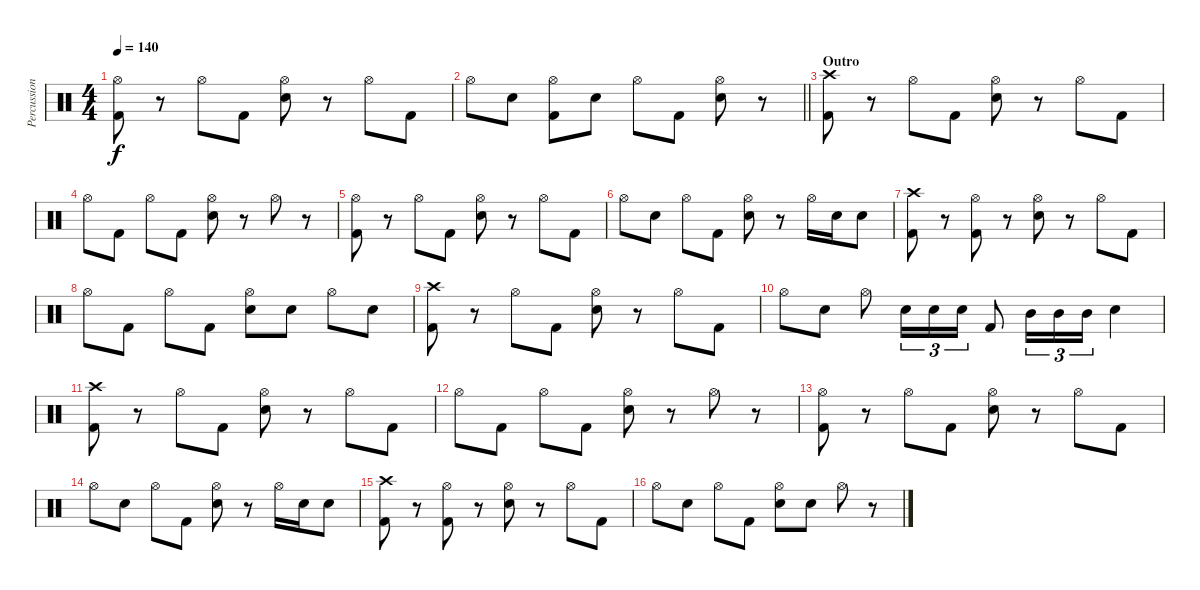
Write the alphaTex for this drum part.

\track ("Percussion" "Percussion") {instrument percussion}
\staff {score}
\articulation defaults
\ts (4 4)
\tempo 140
\clef neutral
\ks c
("Hi-Hat (open)" "Kick (hit) 2").8{dy f} r.8 "Hi-Hat (open)".8 "Kick (hit) 2".8 ("Hi-Hat (open)" "Snare (hit) 2").8 r.8 "Hi-Hat (open)".8 "Kick (hit) 2".8 |
\barLineRight lightlight "Hi-Hat (open)".8 "Snare (hit) 2".8
("Hi-Hat (open)" "Kick (hit) 2").8 "Snare (hit) 2".8 "Hi-Hat (open)".8 "Kick (hit) 2".8 ("Hi-Hat (open)" "Snare (hit) 2").8 r.8 |
\section ("" "Outro")
("Crash high (hit)" "Kick (hit) 2").8 r.8 "Hi-Hat (open)".8 "Kick (hit) 2".8 ("Hi-Hat (open)" "Snare (hit) 2").8 r.8 "Hi-Hat (open)".8 "Kick (hit) 2".8 |
"Hi-Hat (open)".8 "Kick (hit) 2".8 "Hi-Hat (open)".8 "Kick (hit) 2".8 ("Hi-Hat (open)" "Snare (hit) 2").8 r.8 "Hi-Hat (open)".8 r.8 |
("Hi-Hat (open)" "Kick (hit) 2").8 r.8 "Hi-Hat (open)".8 "Kick (hit) 2".8 ("Hi-Hat (open)" "Snare (hit) 2").8 r.8 "Hi-Hat (open)".8 "Kick (hit) 2".8 |
"Hi-Hat (open)".8 "Snare (hit) 2".8 "Hi-Hat (open)".8 "Kick (hit) 2".8 ("Hi-Hat (open)" "Snare (hit) 2").8 r.8 "Hi-Hat (open)".16 "Snare (hit) 2".16 "Snare (hit) 2".8 |
("Crash high (hit)" "Kick (hit) 2").8 r.8 ("Hi-Hat (open)" "Kick (hit) 2").8 r.8 ("Hi-Hat (open)" "Snare (hit) 2").8 r.8 "Hi-Hat (open)".8 "Kick (hit) 2".8 |
"Hi-Hat (open)".8 "Kick (hit) 2".8 "Hi-Hat (open)".8 "Kick (hit) 2".8 ("Hi-Hat (open)" "Snare (hit) 2").8 "Snare (hit) 2".8 "Hi-Hat (open)".8 "Snare (hit) 2".8 |
("Crash high (hit)" "Kick (hit) 2").8 r.8 "Hi-Hat (open)".8 "Kick (hit) 2".8 ("Hi-Hat (open)" "Snare (hit) 2").8 r.8 "Hi-Hat (open)".8 "Kick (hit) 2".8 |
"Hi-Hat (open)".8 "Snare (hit) 2".8 "Hi-Hat (open)".8 "Snare (hit) 2".16{tu (3 2)} "Snare (hit) 2".16{tu (3 2)} "Snare (hit) 2".16{tu (3 2)} "Kick (hit) 2".8 "Mid Tom (hit)".16{tu (3 2)} "Mid Tom (hit)".16{tu (3 2)} "Mid Tom (hit)".16{tu (3 2)} "Snare (hit) 2".4 |
("Crash high (hit)" "Kick (hit) 2").8 r.8 "Hi-Hat (open)".8 "Kick (hit) 2".8 ("Hi-Hat (open)" "Snare (hit) 2").8 r.8 "Hi-Hat (open)".8 "Kick (hit) 2".8 |
"Hi-Hat (open)".8 "Kick (hit) 2".8 "Hi-Hat (open)".8 "Kick (hit) 2".8 ("Hi-Hat (open)" "Snare (hit) 2").8 r.8 "Hi-Hat (open)".8 r.8 |
("Hi-Hat (open)" "Kick (hit) 2").8 r.8 "Hi-Hat (open)".8 "Kick (hit) 2".8 ("Hi-Hat (open)" "Snare (hit) 2").8 r.8 "Hi-Hat (open)".8 "Kick (hit) 2".8 |
"Hi-Hat (open)".8 "Snare (hit) 2".8 "Hi-Hat (open)".8 "Kick (hit) 2".8 ("Hi-Hat (open)" "Snare (hit) 2").8 r.8 "Hi-Hat (open)".16 "Snare (hit) 2".16 "Snare (hit) 2".8 |
("Crash high (hit)" "Kick (hit) 2").8 r.8 ("Hi-Hat (open)" "Kick (hit) 2").8 r.8 ("Hi-Hat (open)" "Snare (hit) 2").8 r.8 "Hi-Hat (open)".8 "Kick (hit) 2".8 |
"Hi-Hat (open)".8 "Snare (hit) 2".8 "Hi-Hat (open)".8 "Kick (hit) 2".8 ("Hi-Hat (open)" "Snare (hit) 2").8 "Snare (hit) 2".8 "Hi-Hat (open)".8 r.8
